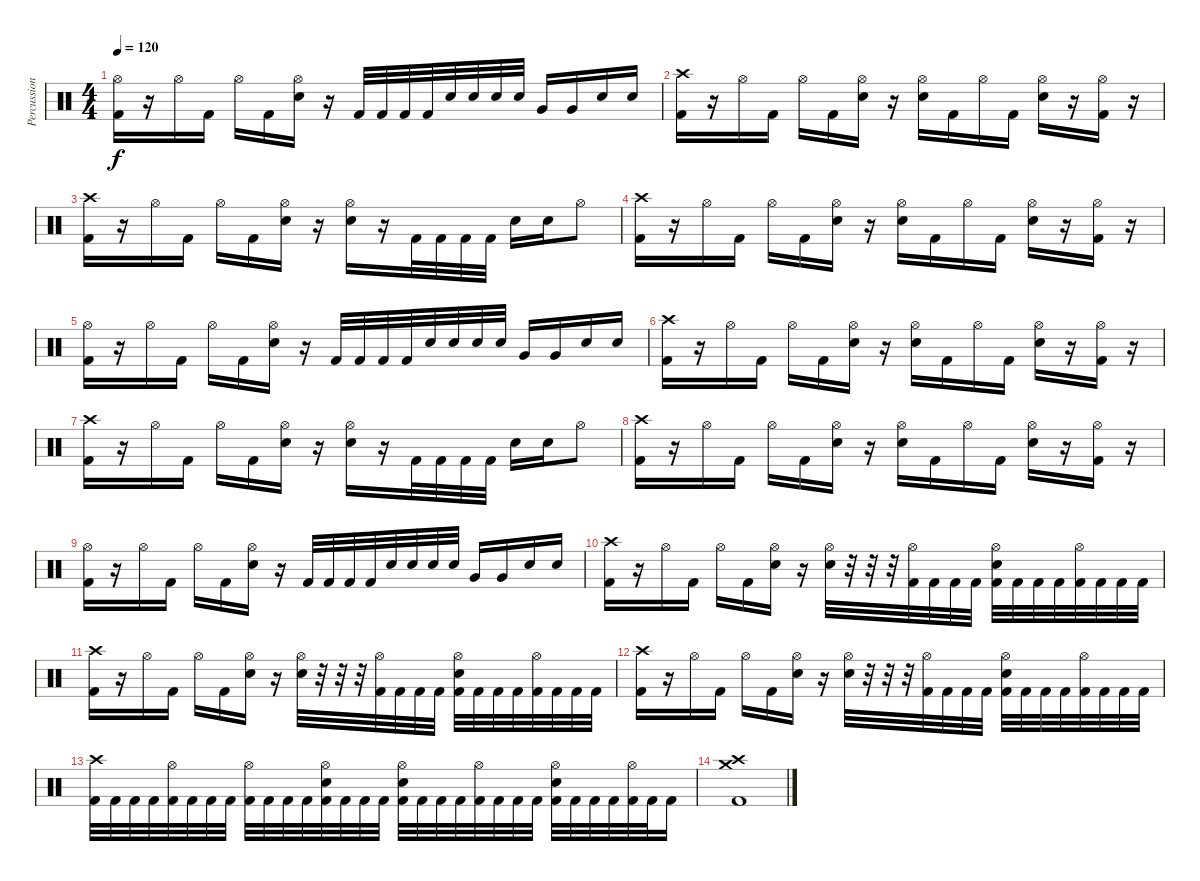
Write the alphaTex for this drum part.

\track ("Percussion" "Percussion") {instrument percussion}
\staff {score}
\articulation defaults
\ts (4 4)
\tempo 120
\clef neutral
\ks c
("Hi-Hat (open)" "Kick (hit) 2").16{dy f} r.16 "Hi-Hat (open)".16 "Kick (hit) 2".16 "Hi-Hat (open)".16 "Kick (hit) 2".16 ("Hi-Hat (open)" "Electric Snare (hit)").16 r.16 "Kick (hit) 2".32 "Kick (hit) 2".32 "Kick (hit) 2".32 "Kick (hit) 2".32 "Electric Snare (hit)".32 "Electric Snare (hit)".32 "Electric Snare (hit)".32 "Electric Snare (hit)".32 "Very Low Tom (hit)".16 "Very Low Tom (hit)".16 "Electric Snare (hit)".16 "Electric Snare (hit)".16 |
("Crash high (hit)" "Kick (hit) 2").16 r.16 "Hi-Hat (open)".16 "Kick (hit) 2".16 "Hi-Hat (open)".16 "Kick (hit) 2".16 ("Hi-Hat (open)" "Electric Snare (hit)").16 r.16 ("Hi-Hat (open)" "Electric Snare (hit)").16 "Kick (hit) 2".16 "Hi-Hat (open)".16 "Kick (hit) 2".16 ("Hi-Hat (open)" "Electric Snare (hit)").16 r.16 ("Hi-Hat (open)" "Kick (hit) 2").16 r.16 |
("Crash high (hit)" "Kick (hit) 2").16 r.16 "Hi-Hat (open)".16 "Kick (hit) 2".16 "Hi-Hat (open)".16 "Kick (hit) 2".16 ("Hi-Hat (open)" "Electric Snare (hit)").16 r.16 ("Hi-Hat (open)" "Electric Snare (hit)").16 r.16 "Kick (hit) 2".32 "Kick (hit) 2".32 "Kick (hit) 2".32 "Kick (hit) 2".32 "Electric Snare (hit)".16 "Electric Snare (hit)".16 "Hi-Hat (open)".8 |
("Crash high (hit)" "Kick (hit) 2").16 r.16 "Hi-Hat (open)".16 "Kick (hit) 2".16 "Hi-Hat (open)".16 "Kick (hit) 2".16 ("Hi-Hat (open)" "Electric Snare (hit)").16 r.16 ("Hi-Hat (open)" "Electric Snare (hit)").16 "Kick (hit) 2".16 "Hi-Hat (open)".16 "Kick (hit) 2".16 ("Hi-Hat (open)" "Electric Snare (hit)").16 r.16 ("Hi-Hat (open)" "Kick (hit) 2").16 r.16 |
("Hi-Hat (open)" "Kick (hit) 2").16 r.16 "Hi-Hat (open)".16 "Kick (hit) 2".16 "Hi-Hat (open)".16 "Kick (hit) 2".16 ("Hi-Hat (open)" "Electric Snare (hit)").16 r.16 "Kick (hit) 2".32 "Kick (hit) 2".32 "Kick (hit) 2".32 "Kick (hit) 2".32 "Electric Snare (hit)".32 "Electric Snare (hit)".32 "Electric Snare (hit)".32 "Electric Snare (hit)".32 "Very Low Tom (hit)".16 "Very Low Tom (hit)".16 "Electric Snare (hit)".16 "Electric Snare (hit)".16 |
("Crash high (hit)" "Kick (hit) 2").16 r.16 "Hi-Hat (open)".16 "Kick (hit) 2".16 "Hi-Hat (open)".16 "Kick (hit) 2".16 ("Hi-Hat (open)" "Electric Snare (hit)").16 r.16 ("Hi-Hat (open)" "Electric Snare (hit)").16 "Kick (hit) 2".16 "Hi-Hat (open)".16 "Kick (hit) 2".16 ("Hi-Hat (open)" "Electric Snare (hit)").16 r.16 ("Hi-Hat (open)" "Kick (hit) 2").16 r.16 |
("Crash high (hit)" "Kick (hit) 2").16 r.16 "Hi-Hat (open)".16 "Kick (hit) 2".16 "Hi-Hat (open)".16 "Kick (hit) 2".16 ("Hi-Hat (open)" "Electric Snare (hit)").16 r.16 ("Hi-Hat (open)" "Electric Snare (hit)").16 r.16 "Kick (hit) 2".32 "Kick (hit) 2".32 "Kick (hit) 2".32 "Kick (hit) 2".32 "Electric Snare (hit)".16 "Electric Snare (hit)".16 "Hi-Hat (open)".8 |
("Crash high (hit)" "Kick (hit) 2").16 r.16 "Hi-Hat (open)".16 "Kick (hit) 2".16 "Hi-Hat (open)".16 "Kick (hit) 2".16 ("Hi-Hat (open)" "Electric Snare (hit)").16 r.16 ("Hi-Hat (open)" "Electric Snare (hit)").16 "Kick (hit) 2".16 "Hi-Hat (open)".16 "Kick (hit) 2".16 ("Hi-Hat (open)" "Electric Snare (hit)").16 r.16 ("Hi-Hat (open)" "Kick (hit) 2").16 r.16 |
("Hi-Hat (open)" "Kick (hit) 2").16 r.16 "Hi-Hat (open)".16 "Kick (hit) 2".16 "Hi-Hat (open)".16 "Kick (hit) 2".16 ("Hi-Hat (open)" "Electric Snare (hit)").16 r.16 "Kick (hit) 2".32 "Kick (hit) 2".32 "Kick (hit) 2".32 "Kick (hit) 2".32 "Electric Snare (hit)".32 "Electric Snare (hit)".32 "Electric Snare (hit)".32 "Electric Snare (hit)".32 "Very Low Tom (hit)".16 "Very Low Tom (hit)".16 "Electric Snare (hit)".16 "Electric Snare (hit)".16 |
("Crash high (hit)" "Kick (hit) 2").16 r.16 "Hi-Hat (open)".16 "Kick (hit) 2".16 "Hi-Hat (open)".16 "Kick (hit) 2".16 ("Hi-Hat (open)" "Electric Snare (hit)").16 r.16 ("Hi-Hat (open)" "Electric Snare (hit)").32 r.32 r.32 r.32 ("Hi-Hat (open)" "Kick (hit) 2").32 "Kick (hit) 2".32 "Kick (hit) 2".32 "Kick (hit) 2".32 ("Hi-Hat (open)" "Electric Snare (hit)" "Kick (hit) 2").32 "Kick (hit) 2".32 "Kick (hit) 2".32 "Kick (hit) 2".32 ("Hi-Hat (open)" "Kick (hit) 2").32 "Kick (hit) 2".32 "Kick (hit) 2".32 "Kick (hit) 2".32 |
("Crash high (hit)" "Kick (hit) 2").16 r.16 "Hi-Hat (open)".16 "Kick (hit) 2".16 "Hi-Hat (open)".16 "Kick (hit) 2".16 ("Hi-Hat (open)" "Electric Snare (hit)").16 r.16 ("Hi-Hat (open)" "Electric Snare (hit)").32 r.32 r.32 r.32 ("Hi-Hat (open)" "Kick (hit) 2").32 "Kick (hit) 2".32 "Kick (hit) 2".32 "Kick (hit) 2".32 ("Hi-Hat (open)" "Electric Snare (hit)" "Kick (hit) 2").32 "Kick (hit) 2".32 "Kick (hit) 2".32 "Kick (hit) 2".32 ("Hi-Hat (open)" "Kick (hit) 2").32 "Kick (hit) 2".32 "Kick (hit) 2".32 "Kick (hit) 2".32 |
("Crash high (hit)" "Kick (hit) 2").16 r.16 "Hi-Hat (open)".16 "Kick (hit) 2".16 "Hi-Hat (open)".16 "Kick (hit) 2".16 ("Hi-Hat (open)" "Electric Snare (hit)").16 r.16 ("Hi-Hat (open)" "Electric Snare (hit)").32 r.32 r.32 r.32 ("Hi-Hat (open)" "Kick (hit) 2").32 "Kick (hit) 2".32 "Kick (hit) 2".32 "Kick (hit) 2".32 ("Hi-Hat (open)" "Electric Snare (hit)" "Kick (hit) 2").32 "Kick (hit) 2".32 "Kick (hit) 2".32 "Kick (hit) 2".32 ("Hi-Hat (open)" "Kick (hit) 2").32 "Kick (hit) 2".32 "Kick (hit) 2".32 "Kick (hit) 2".32 |
("Crash high (hit)" "Kick (hit) 2").32 "Kick (hit) 2".32 "Kick (hit) 2".32 "Kick (hit) 2".32 ("Hi-Hat (open)" "Kick (hit) 2").32 "Kick (hit) 2".32 "Kick (hit) 2".32 "Kick (hit) 2".32 ("Hi-Hat (open)" "Kick (hit) 2").32 "Kick (hit) 2".32 "Kick (hit) 2".32 "Kick (hit) 2".32 ("Hi-Hat (open)" "Electric Snare (hit)" "Kick (hit) 2").32 "Kick (hit) 2".32 "Kick (hit) 2".32 "Kick (hit) 2".32 ("Hi-Hat (open)" "Electric Snare (hit)" "Kick (hit) 2").32 "Kick (hit) 2".32 "Kick (hit) 2".32 "Kick (hit) 2".32 ("Hi-Hat (open)" "Kick (hit) 2").32 "Kick (hit) 2".32 "Kick (hit) 2".32 "Kick (hit) 2".32 ("Hi-Hat (open)" "Electric Snare (hit)" "Kick (hit) 2").32 "Kick (hit) 2".32 "Kick (hit) 2".32 "Kick (hit) 2".32 ("Hi-Hat (open)" "Kick (hit) 2").32 "Kick (hit) 2".32 "Kick (hit) 2".16 |
("Crash high (hit)" "Crash medium (hit)" "Kick (hit) 2").1
